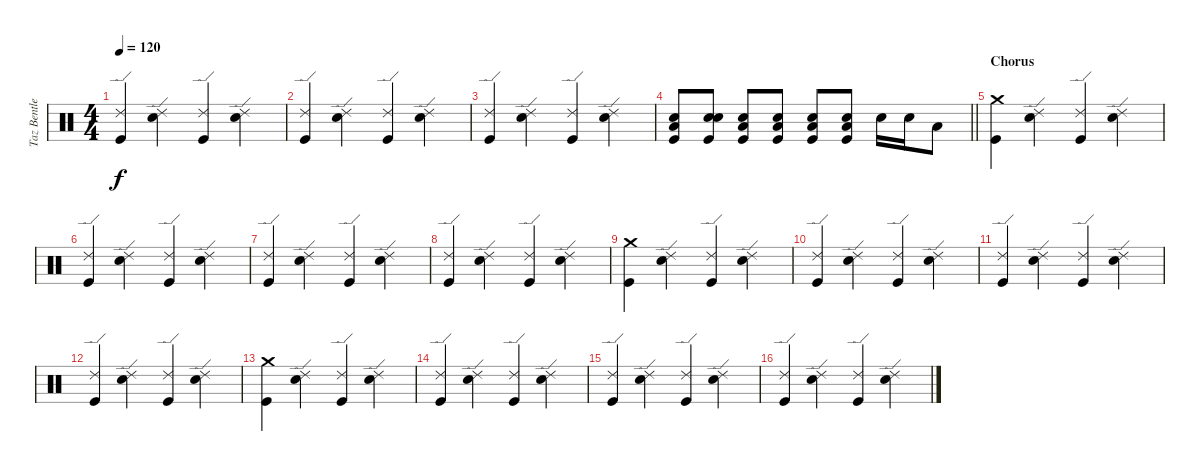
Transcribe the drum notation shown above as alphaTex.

\track ("Taz Bentley - drums" "Taz Bentle") {instrument percussion}
\staff
\articulation defaults
\ts (4 4)
\tempo 120
\clef neutral
\ks c
("Ride (edge) 2" "Kick (hit)").4{dy f} ("Ride (edge) 2" "Electric Snare (hit)").4 ("Ride (edge) 2" "Kick (hit)").4 ("Ride (edge) 2" "Electric Snare (hit)").4 |
("Ride (edge) 2" "Kick (hit)").4 ("Ride (edge) 2" "Electric Snare (hit)").4 ("Ride (edge) 2" "Kick (hit)").4 ("Ride (edge) 2" "Electric Snare (hit)").4 |
("Ride (edge) 2" "Kick (hit)").4 ("Ride (edge) 2" "Electric Snare (hit)").4 ("Ride (edge) 2" "Kick (hit)").4 ("Ride (edge) 2" "Electric Snare (hit)").4 |
\barLineRight lightlight
("Electric Snare (hit)" "Low Tom (hit)" "Kick (hit)").8 ("Electric Snare (hit)" "Snare (hit)" "Kick (hit)").8 ("Electric Snare (hit)" "Low Tom (hit)" "Kick (hit)").8 ("Electric Snare (hit)" "Low Tom (hit)" "Kick (hit)").8 ("Electric Snare (hit)" "Low Tom (hit)" "Kick (hit)").8 ("Electric Snare (hit)" "Low Tom (hit)" "Kick (hit)").8 "Electric Snare (hit)".16 "Electric Snare (hit)".16 "Low Tom (hit)".8 |
\section ("" "Chorus")
("Crash medium (hit)" "Kick (hit)").4 ("Ride (edge) 2" "Electric Snare (hit)").4 ("Ride (edge) 2" "Kick (hit)").4 ("Ride (edge) 2" "Electric Snare (hit)").4 |
("Ride (edge) 2" "Kick (hit)").4 ("Ride (edge) 2" "Electric Snare (hit)").4 ("Ride (edge) 2" "Kick (hit)").4 ("Ride (edge) 2" "Electric Snare (hit)").4 |
("Ride (edge) 2" "Kick (hit)").4 ("Ride (edge) 2" "Electric Snare (hit)").4 ("Ride (edge) 2" "Kick (hit)").4 ("Ride (edge) 2" "Electric Snare (hit)").4 |
("Ride (edge) 2" "Kick (hit)").4 ("Ride (edge) 2" "Electric Snare (hit)").4 ("Ride (edge) 2" "Kick (hit)").4 ("Ride (edge) 2" "Electric Snare (hit)").4 |
("Crash medium (hit)" "Kick (hit)").4 ("Ride (edge) 2" "Electric Snare (hit)").4 ("Ride (edge) 2" "Kick (hit)").4 ("Ride (edge) 2" "Electric Snare (hit)").4 |
("Ride (edge) 2" "Kick (hit)").4 ("Ride (edge) 2" "Electric Snare (hit)").4 ("Ride (edge) 2" "Kick (hit)").4 ("Ride (edge) 2" "Electric Snare (hit)").4 |
("Ride (edge) 2" "Kick (hit)").4 ("Ride (edge) 2" "Electric Snare (hit)").4 ("Ride (edge) 2" "Kick (hit)").4 ("Ride (edge) 2" "Electric Snare (hit)").4 |
("Ride (edge) 2" "Kick (hit)").4 ("Ride (edge) 2" "Electric Snare (hit)").4 ("Ride (edge) 2" "Kick (hit)").4 ("Ride (edge) 2" "Electric Snare (hit)").4 |
("Crash medium (hit)" "Kick (hit)").4 ("Ride (edge) 2" "Electric Snare (hit)").4 ("Ride (edge) 2" "Kick (hit)").4 ("Ride (edge) 2" "Electric Snare (hit)").4 |
("Ride (edge) 2" "Kick (hit)").4 ("Ride (edge) 2" "Electric Snare (hit)").4 ("Ride (edge) 2" "Kick (hit)").4 ("Ride (edge) 2" "Electric Snare (hit)").4 |
("Ride (edge) 2" "Kick (hit)").4 ("Ride (edge) 2" "Electric Snare (hit)").4 ("Ride (edge) 2" "Kick (hit)").4 ("Ride (edge) 2" "Electric Snare (hit)").4 |
("Ride (edge) 2" "Kick (hit)").4 ("Ride (edge) 2" "Electric Snare (hit)").4 ("Ride (edge) 2" "Kick (hit)").4 ("Ride (edge) 2" "Electric Snare (hit)").4
